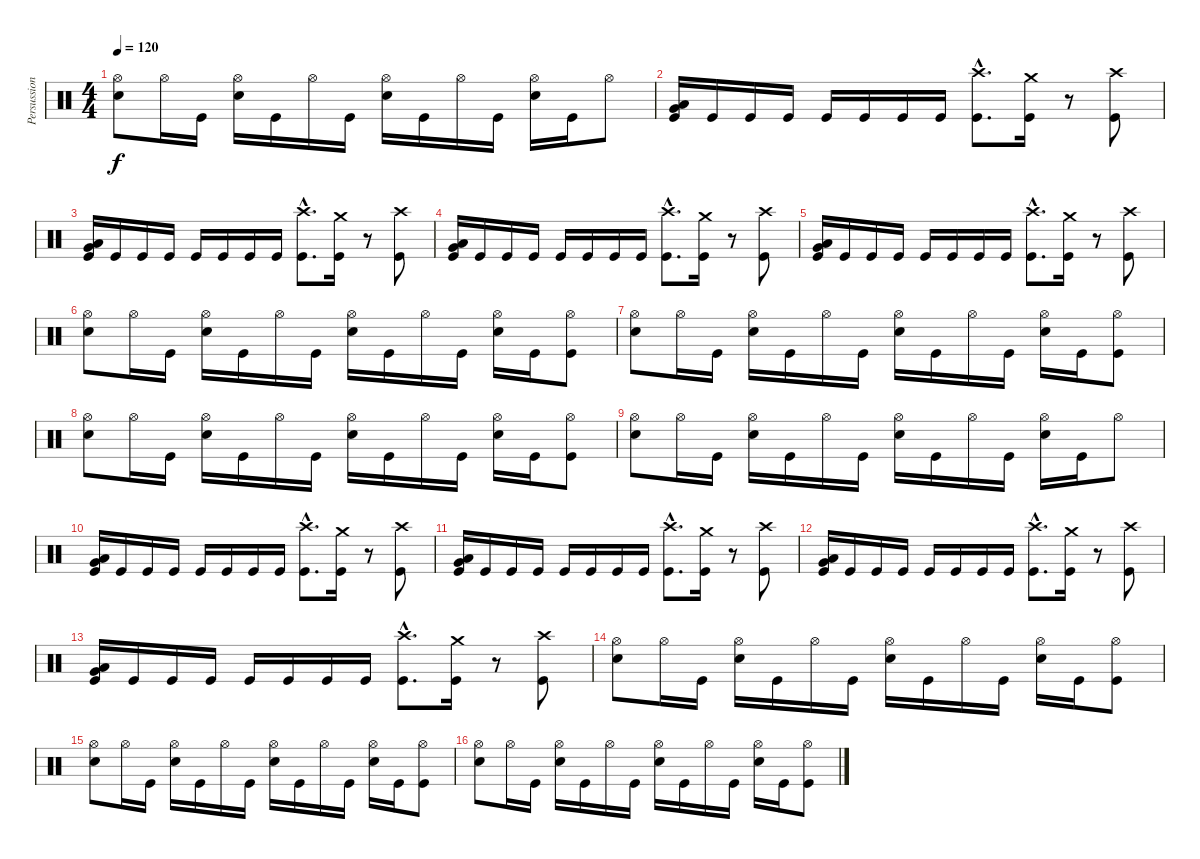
\track ("Persussion" "Persussion") {instrument percussion}
\staff {score}
\articulation defaults
\ts (4 4)
\tempo 120
\clef neutral
\ks c
("Hi-Hat (open)" "Snare (hit) 2").8{dy f} "Hi-Hat (open)".16 "Kick (hit)".16 ("Hi-Hat (open)" "Snare (hit) 2").16 "Kick (hit)".16 "Hi-Hat (open)".16 "Kick (hit)".16 ("Hi-Hat (open)" "Snare (hit) 2").16 "Kick (hit)".16 "Hi-Hat (open)".16 "Kick (hit)".16 ("Hi-Hat (open)" "Snare (hit) 2").16 "Kick (hit)".16 "Hi-Hat (open)".8 |
("Very Low Tom (hit)" "Low Floor Tom (hit)" "Kick (hit)").16 "Kick (hit)".16 "Kick (hit)".16 "Kick (hit)".16 "Kick (hit)".16 "Kick (hit)".16 "Kick (hit)".16 "Kick (hit)".16 ("Crash high (hit)"{hac} "Kick (hit)"{hac}).8{d} ("Crash medium (hit)" "Kick (hit)").16 r.8 ("Crash high (hit)" "Kick (hit)").8 |
("Very Low Tom (hit)" "Low Floor Tom (hit)" "Kick (hit)").16 "Kick (hit)".16 "Kick (hit)".16 "Kick (hit)".16 "Kick (hit)".16 "Kick (hit)".16 "Kick (hit)".16 "Kick (hit)".16 ("Crash high (hit)"{hac} "Kick (hit)"{hac}).8{d} ("Crash medium (hit)" "Kick (hit)").16 r.8 ("Crash high (hit)" "Kick (hit)").8 |
("Very Low Tom (hit)" "Low Floor Tom (hit)" "Kick (hit)").16 "Kick (hit)".16 "Kick (hit)".16 "Kick (hit)".16 "Kick (hit)".16 "Kick (hit)".16 "Kick (hit)".16 "Kick (hit)".16 ("Crash high (hit)"{hac} "Kick (hit)"{hac}).8{d} ("Crash medium (hit)" "Kick (hit)").16 r.8 ("Crash high (hit)" "Kick (hit)").8 |
("Very Low Tom (hit)" "Low Floor Tom (hit)" "Kick (hit)").16 "Kick (hit)".16 "Kick (hit)".16 "Kick (hit)".16 "Kick (hit)".16 "Kick (hit)".16 "Kick (hit)".16 "Kick (hit)".16 ("Crash high (hit)"{hac} "Kick (hit)"{hac}).8{d} ("Crash medium (hit)" "Kick (hit)").16 r.8 ("Crash high (hit)" "Kick (hit)").8 |
("Hi-Hat (open)" "Snare (hit) 2").8 "Hi-Hat (open)".16 "Kick (hit)".16 ("Hi-Hat (open)" "Snare (hit) 2").16 "Kick (hit)".16 "Hi-Hat (open)".16 "Kick (hit)".16 ("Hi-Hat (open)" "Snare (hit) 2").16 "Kick (hit)".16 "Hi-Hat (open)".16 "Kick (hit)".16 ("Hi-Hat (open)" "Snare (hit) 2").16 "Kick (hit)".16 ("Hi-Hat (open)" "Kick (hit)").8 |
("Hi-Hat (open)" "Snare (hit) 2").8 "Hi-Hat (open)".16 "Kick (hit)".16 ("Hi-Hat (open)" "Snare (hit) 2").16 "Kick (hit)".16 "Hi-Hat (open)".16 "Kick (hit)".16 ("Hi-Hat (open)" "Snare (hit) 2").16 "Kick (hit)".16 "Hi-Hat (open)".16 "Kick (hit)".16 ("Hi-Hat (open)" "Snare (hit) 2").16 "Kick (hit)".16 ("Hi-Hat (open)" "Kick (hit)").8 |
("Hi-Hat (open)" "Snare (hit) 2").8 "Hi-Hat (open)".16 "Kick (hit)".16 ("Hi-Hat (open)" "Snare (hit) 2").16 "Kick (hit)".16 "Hi-Hat (open)".16 "Kick (hit)".16 ("Hi-Hat (open)" "Snare (hit) 2").16 "Kick (hit)".16 "Hi-Hat (open)".16 "Kick (hit)".16 ("Hi-Hat (open)" "Snare (hit) 2").16 "Kick (hit)".16 ("Hi-Hat (open)" "Kick (hit)").8 |
("Hi-Hat (open)" "Snare (hit) 2").8 "Hi-Hat (open)".16 "Kick (hit)".16 ("Hi-Hat (open)" "Snare (hit) 2").16 "Kick (hit)".16 "Hi-Hat (open)".16 "Kick (hit)".16 ("Hi-Hat (open)" "Snare (hit) 2").16 "Kick (hit)".16 "Hi-Hat (open)".16 "Kick (hit)".16 ("Hi-Hat (open)" "Snare (hit) 2").16 "Kick (hit)".16 "Hi-Hat (open)".8 |
("Very Low Tom (hit)" "Low Floor Tom (hit)" "Kick (hit)").16 "Kick (hit)".16 "Kick (hit)".16 "Kick (hit)".16 "Kick (hit)".16 "Kick (hit)".16 "Kick (hit)".16 "Kick (hit)".16 ("Crash high (hit)"{hac} "Kick (hit)"{hac}).8{d} ("Crash medium (hit)" "Kick (hit)").16 r.8 ("Crash high (hit)" "Kick (hit)").8 |
("Very Low Tom (hit)" "Low Floor Tom (hit)" "Kick (hit)").16 "Kick (hit)".16 "Kick (hit)".16 "Kick (hit)".16 "Kick (hit)".16 "Kick (hit)".16 "Kick (hit)".16 "Kick (hit)".16 ("Crash high (hit)"{hac} "Kick (hit)"{hac}).8{d} ("Crash medium (hit)" "Kick (hit)").16 r.8 ("Crash high (hit)" "Kick (hit)").8 |
("Very Low Tom (hit)" "Low Floor Tom (hit)" "Kick (hit)").16 "Kick (hit)".16 "Kick (hit)".16 "Kick (hit)".16 "Kick (hit)".16 "Kick (hit)".16 "Kick (hit)".16 "Kick (hit)".16 ("Crash high (hit)"{hac} "Kick (hit)"{hac}).8{d} ("Crash medium (hit)" "Kick (hit)").16 r.8 ("Crash high (hit)" "Kick (hit)").8 |
("Very Low Tom (hit)" "Low Floor Tom (hit)" "Kick (hit)").16 "Kick (hit)".16 "Kick (hit)".16 "Kick (hit)".16 "Kick (hit)".16 "Kick (hit)".16 "Kick (hit)".16 "Kick (hit)".16 ("Crash high (hit)"{hac} "Kick (hit)"{hac}).8{d} ("Crash medium (hit)" "Kick (hit)").16 r.8 ("Crash high (hit)" "Kick (hit)").8 |
("Hi-Hat (open)" "Snare (hit) 2").8 "Hi-Hat (open)".16 "Kick (hit)".16 ("Hi-Hat (open)" "Snare (hit) 2").16 "Kick (hit)".16 "Hi-Hat (open)".16 "Kick (hit)".16 ("Hi-Hat (open)" "Snare (hit) 2").16 "Kick (hit)".16 "Hi-Hat (open)".16 "Kick (hit)".16 ("Hi-Hat (open)" "Snare (hit) 2").16 "Kick (hit)".16 ("Hi-Hat (open)" "Kick (hit)").8 |
("Hi-Hat (open)" "Snare (hit) 2").8 "Hi-Hat (open)".16 "Kick (hit)".16 ("Hi-Hat (open)" "Snare (hit) 2").16 "Kick (hit)".16 "Hi-Hat (open)".16 "Kick (hit)".16 ("Hi-Hat (open)" "Snare (hit) 2").16 "Kick (hit)".16 "Hi-Hat (open)".16 "Kick (hit)".16 ("Hi-Hat (open)" "Snare (hit) 2").16 "Kick (hit)".16 ("Hi-Hat (open)" "Kick (hit)").8 |
("Hi-Hat (open)" "Snare (hit) 2").8 "Hi-Hat (open)".16 "Kick (hit)".16 ("Hi-Hat (open)" "Snare (hit) 2").16 "Kick (hit)".16 "Hi-Hat (open)".16 "Kick (hit)".16 ("Hi-Hat (open)" "Snare (hit) 2").16 "Kick (hit)".16 "Hi-Hat (open)".16 "Kick (hit)".16 ("Hi-Hat (open)" "Snare (hit) 2").16 "Kick (hit)".16 ("Hi-Hat (open)" "Kick (hit)").8
